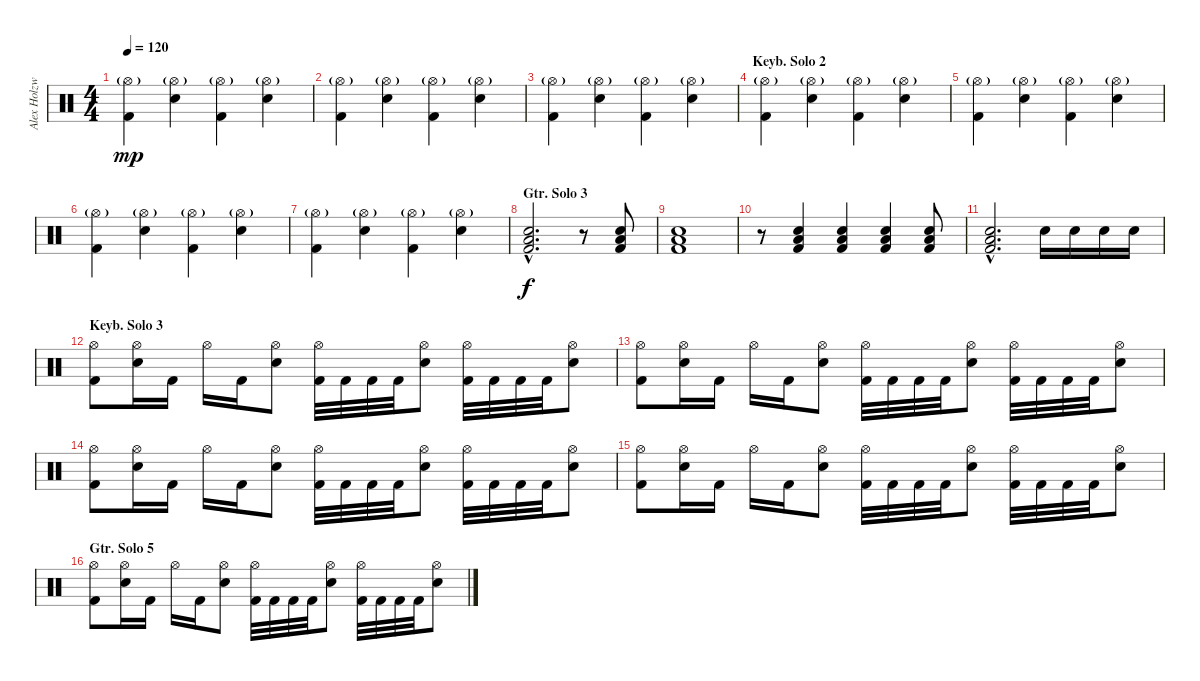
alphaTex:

\track ("Alex Holzwarth - Drums" "Alex Holzw") {instrument percussion}
\staff {score}
\articulation defaults
\ts (4 4)
\tempo 120
\clef neutral
\ks c
("Hi-Hat (open)"{g} "Kick (hit) 2").4{dy mp} ("Hi-Hat (open)"{g} "Electric Snare (hit)").4 ("Hi-Hat (open)"{g} "Kick (hit) 2").4 ("Hi-Hat (open)"{g} "Electric Snare (hit)").4 |
("Hi-Hat (open)"{g} "Kick (hit) 2").4 ("Hi-Hat (open)"{g} "Electric Snare (hit)").4 ("Hi-Hat (open)"{g} "Kick (hit) 2").4 ("Hi-Hat (open)"{g} "Electric Snare (hit)").4 |
("Hi-Hat (open)"{g} "Kick (hit) 2").4 ("Hi-Hat (open)"{g} "Electric Snare (hit)").4 ("Hi-Hat (open)"{g} "Kick (hit) 2").4 ("Hi-Hat (open)"{g} "Electric Snare (hit)").4 |
\section ("" "Keyb. Solo 2")
("Hi-Hat (open)"{g} "Kick (hit) 2").4 ("Hi-Hat (open)"{g} "Electric Snare (hit)").4 ("Hi-Hat (open)"{g} "Kick (hit) 2").4 ("Hi-Hat (open)"{g} "Electric Snare (hit)").4 |
("Hi-Hat (open)"{g} "Kick (hit) 2").4 ("Hi-Hat (open)"{g} "Electric Snare (hit)").4 ("Hi-Hat (open)"{g} "Kick (hit) 2").4 ("Hi-Hat (open)"{g} "Electric Snare (hit)").4 |
("Hi-Hat (open)"{g} "Kick (hit) 2").4 ("Hi-Hat (open)"{g} "Electric Snare (hit)").4 ("Hi-Hat (open)"{g} "Kick (hit) 2").4 ("Hi-Hat (open)"{g} "Electric Snare (hit)").4 |
("Hi-Hat (open)"{g} "Kick (hit) 2").4 ("Hi-Hat (open)"{g} "Electric Snare (hit)").4 ("Hi-Hat (open)"{g} "Kick (hit) 2").4 ("Hi-Hat (open)"{g} "Electric Snare (hit)").4 |
\section ("" "Gtr. Solo 3")
("Electric Snare (hit)"{hac} "Low Floor Tom (hit)"{hac} "Kick (hit) 2"{hac}).2{d dy f} r.8 ("Electric Snare (hit)" "Low Floor Tom (hit)" "Kick (hit) 2").8 |
("Electric Snare (hit)" "Low Floor Tom (hit)" "Kick (hit) 2").1 |
r.8 ("Electric Snare (hit)" "Low Floor Tom (hit)" "Kick (hit) 2").4 ("Electric Snare (hit)" "Low Floor Tom (hit)" "Kick (hit) 2").4 ("Electric Snare (hit)" "Low Floor Tom (hit)" "Kick (hit) 2").4 ("Electric Snare (hit)" "Low Floor Tom (hit)" "Kick (hit) 2").8 |
("Electric Snare (hit)"{hac} "Low Floor Tom (hit)"{hac} "Kick (hit) 2"{hac}).2{d} "Electric Snare (hit)".16 "Electric Snare (hit)".16 "Electric Snare (hit)".16 "Electric Snare (hit)".16 |
\section ("" "Keyb. Solo 3")
("Hi-Hat (open)" "Kick (hit) 2").8 ("Hi-Hat (open)" "Electric Snare (hit)").16 "Kick (hit) 2".16 "Hi-Hat (open)".16 "Kick (hit) 2".16 ("Hi-Hat (open)" "Electric Snare (hit)").8 ("Hi-Hat (open)" "Kick (hit) 2").32 "Kick (hit) 2".32 "Kick (hit) 2".32 "Kick (hit) 2".32 ("Hi-Hat (open)" "Electric Snare (hit)").8 ("Hi-Hat (open)" "Kick (hit) 2").32 "Kick (hit) 2".32 "Kick (hit) 2".32 "Kick (hit) 2".32 ("Hi-Hat (open)" "Electric Snare (hit)").8 |
("Hi-Hat (open)" "Kick (hit) 2").8 ("Hi-Hat (open)" "Electric Snare (hit)").16 "Kick (hit) 2".16 "Hi-Hat (open)".16 "Kick (hit) 2".16 ("Hi-Hat (open)" "Electric Snare (hit)").8 ("Hi-Hat (open)" "Kick (hit) 2").32 "Kick (hit) 2".32 "Kick (hit) 2".32 "Kick (hit) 2".32 ("Hi-Hat (open)" "Electric Snare (hit)").8 ("Hi-Hat (open)" "Kick (hit) 2").32 "Kick (hit) 2".32 "Kick (hit) 2".32 "Kick (hit) 2".32 ("Hi-Hat (open)" "Electric Snare (hit)").8 |
("Hi-Hat (open)" "Kick (hit) 2").8 ("Hi-Hat (open)" "Electric Snare (hit)").16 "Kick (hit) 2".16 "Hi-Hat (open)".16 "Kick (hit) 2".16 ("Hi-Hat (open)" "Electric Snare (hit)").8 ("Hi-Hat (open)" "Kick (hit) 2").32 "Kick (hit) 2".32 "Kick (hit) 2".32 "Kick (hit) 2".32 ("Hi-Hat (open)" "Electric Snare (hit)").8 ("Hi-Hat (open)" "Kick (hit) 2").32 "Kick (hit) 2".32 "Kick (hit) 2".32 "Kick (hit) 2".32 ("Hi-Hat (open)" "Electric Snare (hit)").8 |
("Hi-Hat (open)" "Kick (hit) 2").8 ("Hi-Hat (open)" "Electric Snare (hit)").16 "Kick (hit) 2".16 "Hi-Hat (open)".16 "Kick (hit) 2".16 ("Hi-Hat (open)" "Electric Snare (hit)").8 ("Hi-Hat (open)" "Kick (hit) 2").32 "Kick (hit) 2".32 "Kick (hit) 2".32 "Kick (hit) 2".32 ("Hi-Hat (open)" "Electric Snare (hit)").8 ("Hi-Hat (open)" "Kick (hit) 2").32 "Kick (hit) 2".32 "Kick (hit) 2".32 "Kick (hit) 2".32 ("Hi-Hat (open)" "Electric Snare (hit)").8 |
\section ("" "Gtr. Solo 5")
("Hi-Hat (open)" "Kick (hit) 2").8 ("Hi-Hat (open)" "Electric Snare (hit)").16 "Kick (hit) 2".16 "Hi-Hat (open)".16 "Kick (hit) 2".16 ("Hi-Hat (open)" "Electric Snare (hit)").8 ("Hi-Hat (open)" "Kick (hit) 2").32 "Kick (hit) 2".32 "Kick (hit) 2".32 "Kick (hit) 2".32 ("Hi-Hat (open)" "Electric Snare (hit)").8 ("Hi-Hat (open)" "Kick (hit) 2").32 "Kick (hit) 2".32 "Kick (hit) 2".32 "Kick (hit) 2".32 ("Hi-Hat (open)" "Electric Snare (hit)").8
